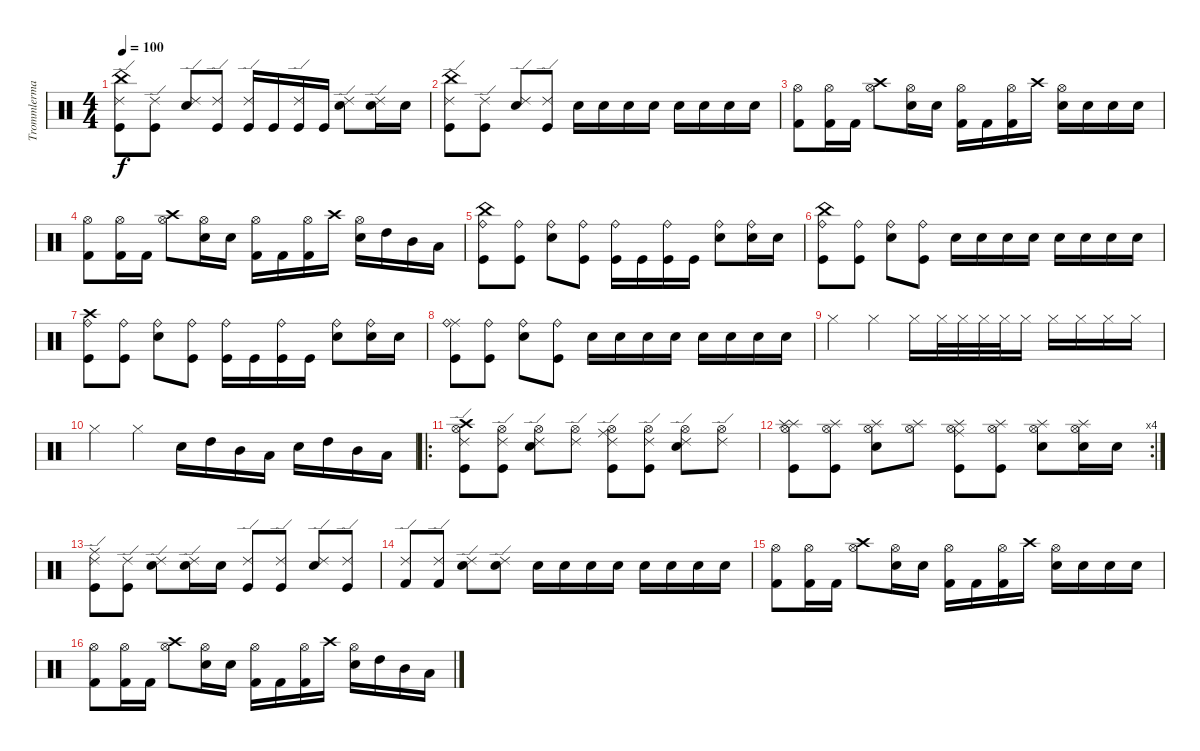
\track ("Trommlermadel" "Trommlerma") {instrument percussion}
\staff {score}
\articulation defaults
\ts (4 4)
\tempo 100
\clef neutral
\ks c
("China (hit)" "Kick (hit)" "Ride (edge) 2").8{dy f} ("Kick (hit)" "Ride (edge) 2").8 ("Electric Snare (hit)" "Ride (edge) 2").8 ("Kick (hit)" "Ride (edge) 2").8 ("Kick (hit)" "Ride (edge) 2").16 "Kick (hit)".16 ("Kick (hit)" "Ride (edge) 2").16 "Kick (hit)".16 ("Electric Snare (hit)" "Ride (edge) 2").8 ("Electric Snare (hit)" "Ride (edge) 2").16 "Electric Snare (hit)".16 |
("China (hit)" "Kick (hit)" "Ride (edge) 2").8 ("Kick (hit)" "Ride (edge) 2").8 ("Electric Snare (hit)" "Ride (edge) 2").8 ("Kick (hit)" "Ride (edge) 2").8 "Electric Snare (hit)".16 "Electric Snare (hit)".16 "Electric Snare (hit)".16 "Electric Snare (hit)".16 "Electric Snare (hit)".16 "Electric Snare (hit)".16 "Electric Snare (hit)".16 "Electric Snare (hit)".16 |
("Kick (hit) 2" "Hi-Hat (open)").8 ("Kick (hit) 2" "Hi-Hat (open)").16 "Kick (hit) 2".16 ("Crash high (hit)" "Hi-Hat (open)").8 ("Electric Snare (hit)" "Hi-Hat (open)").16 "Electric Snare (hit)".16 ("Kick (hit) 2" "Hi-Hat (open)").16 "Kick (hit) 2".16 ("Kick (hit) 2" "Hi-Hat (open)").16 "Crash high (hit)".16 ("Electric Snare (hit)" "Hi-Hat (open)").16 "Electric Snare (hit)".16 "Electric Snare (hit)".16 "Electric Snare (hit)".16 |
("Kick (hit) 2" "Hi-Hat (open)").8 ("Kick (hit) 2" "Hi-Hat (open)").16 "Kick (hit) 2".16 ("Crash high (hit)" "Hi-Hat (open)").8 ("Electric Snare (hit)" "Hi-Hat (open)").16 "Electric Snare (hit)".16 ("Kick (hit) 2" "Hi-Hat (open)").16 "Kick (hit) 2".16 ("Kick (hit) 2" "Hi-Hat (open)").16 "Crash high (hit)".16 ("Electric Snare (hit)" "Hi-Hat (open)").16 "High Tom (hit)".16 "Mid Tom (hit)".16 "Low Tom (hit)".16 |
("China (hit)" "Kick (hit)" "Ride (bell)").8 ("Kick (hit)" "Ride (bell)").8 ("Electric Snare (hit)" "Ride (bell)").8 ("Kick (hit)" "Ride (bell)").8 ("Kick (hit)" "Ride (bell)").16 "Kick (hit)".16 ("Kick (hit)" "Ride (bell)").16 "Kick (hit)".16 ("Electric Snare (hit)" "Ride (bell)").8 ("Electric Snare (hit)" "Ride (bell)").16 "Electric Snare (hit)".16 |
("China (hit)" "Kick (hit)" "Ride (bell)").8 ("Kick (hit)" "Ride (bell)").8 ("Electric Snare (hit)" "Ride (bell)").8 ("Kick (hit)" "Ride (bell)").8 "Electric Snare (hit)".16 "Electric Snare (hit)".16 "Electric Snare (hit)".16 "Electric Snare (hit)".16 "Electric Snare (hit)".16 "Electric Snare (hit)".16 "Electric Snare (hit)".16 "Electric Snare (hit)".16 |
("Crash high (hit)" "Kick (hit)" "Ride (bell)").8 ("Kick (hit)" "Ride (bell)").8 ("Electric Snare (hit)" "Ride (bell)").8 ("Kick (hit)" "Ride (bell)").8 ("Kick (hit)" "Ride (bell)").16 "Kick (hit)".16 ("Kick (hit)" "Ride (bell)").16 "Kick (hit)".16 ("Electric Snare (hit)" "Ride (bell)").8 ("Electric Snare (hit)" "Ride (bell)").16 "Electric Snare (hit)".16 |
("Ride (middle)" "Kick (hit)" "Ride (bell)").8 ("Kick (hit)" "Ride (bell)").8 ("Electric Snare (hit)" "Ride (bell)").8 ("Kick (hit)" "Ride (bell)").8 "Electric Snare (hit)".16 "Electric Snare (hit)".16 "Electric Snare (hit)".16 "Electric Snare (hit)".16 "Electric Snare (hit)".16 "Electric Snare (hit)".16 "Electric Snare (hit)".16 "Electric Snare (hit)".16 |
"Hi-Hat (closed)".4 "Hi-Hat (closed)".4 "Hi-Hat (closed)".16 "Hi-Hat (closed)".32 "Hi-Hat (closed)".32 "Hi-Hat (closed)".32 "Hi-Hat (closed)".32 "Hi-Hat (closed)".16 "Hi-Hat (closed)".16 "Hi-Hat (closed)".16 "Hi-Hat (closed)".16 "Hi-Hat (closed)".16 |
"Hi-Hat (closed)".4 "Hi-Hat (closed)".4 "Electric Snare (hit)".16 "High Tom (hit)".16 "Mid Tom (hit)".16 "Low Tom (hit)".16 "Electric Snare (hit)".16 "High Tom (hit)".16 "Mid Tom (hit)".16 "Low Tom (hit)".16 |
\ro
("Crash high (hit)" "Ride (edge) 2" "Hi-Hat (open)" "Kick (hit)").8 ("Ride (edge) 2" "Hi-Hat (open)" "Kick (hit)").8 ("Ride (edge) 2" "Hi-Hat (open)" "Electric Snare (hit)").8 ("Ride (edge) 2" "Hi-Hat (open)").8 ("Ride (middle)" "Ride (edge) 2" "Hi-Hat (open)" "Kick (hit)").8 ("Ride (edge) 2" "Hi-Hat (open)" "Kick (hit)").8 ("Ride (edge) 2" "Hi-Hat (open)" "Electric Snare (hit)").8 ("Ride (edge) 2" "Hi-Hat (open)").8 |
\rc 4
("Splash (hit)" "Splash (hit)" "Hi-Hat (open)" "Kick (hit)").8 ("Splash (hit)" "Hi-Hat (open)" "Kick (hit)").8 ("Splash (hit)" "Hi-Hat (open)" "Electric Snare (hit)").8 ("Splash (hit)" "Hi-Hat (open)").8 ("Ride (middle)" "Splash (hit)" "Hi-Hat (open)" "Kick (hit)").8 ("Splash (hit)" "Hi-Hat (open)" "Kick (hit)").8 ("Splash (hit)" "Hi-Hat (open)" "Electric Snare (hit)").8 ("Splash (hit)" "Hi-Hat (open)" "Electric Snare (hit)").16 "Electric Snare (hit)".16 |
("Ride (middle)" "Kick (hit)" "Ride (edge) 2").8 ("Kick (hit)" "Ride (edge) 2").8 ("Electric Snare (hit)" "Ride (edge) 2").8 ("Electric Snare (hit)" "Ride (edge) 2").16 "Electric Snare (hit)".16 ("Kick (hit)" "Ride (edge) 2").8 ("Kick (hit)" "Ride (edge) 2").8 ("Electric Snare (hit)" "Ride (edge) 2").8 ("Kick (hit)" "Ride (edge) 2").8 |
("Kick (hit) 2" "Ride (edge) 2").8 ("Kick (hit) 2" "Ride (edge) 2").8 ("Electric Snare (hit)" "Ride (edge) 2").8 ("Electric Snare (hit)" "Ride (edge) 2").8 "Electric Snare (hit)".16 "Electric Snare (hit)".16 "Electric Snare (hit)".16 "Electric Snare (hit)".16 "Electric Snare (hit)".16 "Electric Snare (hit)".16 "Electric Snare (hit)".16 "Electric Snare (hit)".16 |
("Kick (hit) 2" "Hi-Hat (open)").8 ("Kick (hit) 2" "Hi-Hat (open)").16 "Kick (hit) 2".16 ("Crash high (hit)" "Hi-Hat (open)").8 ("Electric Snare (hit)" "Hi-Hat (open)").16 "Electric Snare (hit)".16 ("Kick (hit) 2" "Hi-Hat (open)").16 "Kick (hit) 2".16 ("Kick (hit) 2" "Hi-Hat (open)").16 "Crash high (hit)".16 ("Electric Snare (hit)" "Hi-Hat (open)").16 "Electric Snare (hit)".16 "Electric Snare (hit)".16 "Electric Snare (hit)".16 |
("Kick (hit) 2" "Hi-Hat (open)").8 ("Kick (hit) 2" "Hi-Hat (open)").16 "Kick (hit) 2".16 ("Crash high (hit)" "Hi-Hat (open)").8 ("Electric Snare (hit)" "Hi-Hat (open)").16 "Electric Snare (hit)".16 ("Kick (hit) 2" "Hi-Hat (open)").16 "Kick (hit) 2".16 ("Kick (hit) 2" "Hi-Hat (open)").16 "Crash high (hit)".16 ("Electric Snare (hit)" "Hi-Hat (open)").16 "High Tom (hit)".16 "Mid Tom (hit)".16 "Low Tom (hit)".16
